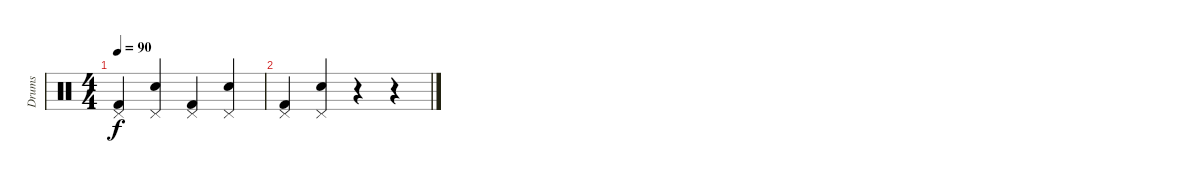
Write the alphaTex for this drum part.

\track ("Drums" "Drums") {instrument percussion}
\staff {score}
\articulation defaults
\ts (4 4)
\tempo 90
\clef neutral
\ks c
("Pedal Hi-Hat (hit)" "Kick (hit) 2").4{dy f} ("Pedal Hi-Hat (hit)" "Electric Snare (hit)").4 ("Pedal Hi-Hat (hit)" "Kick (hit) 2").4 ("Pedal Hi-Hat (hit)" "Electric Snare (hit)").4 |
("Pedal Hi-Hat (hit)" "Kick (hit) 2").4 ("Pedal Hi-Hat (hit)" "Electric Snare (hit)").4 r.4 r.4
